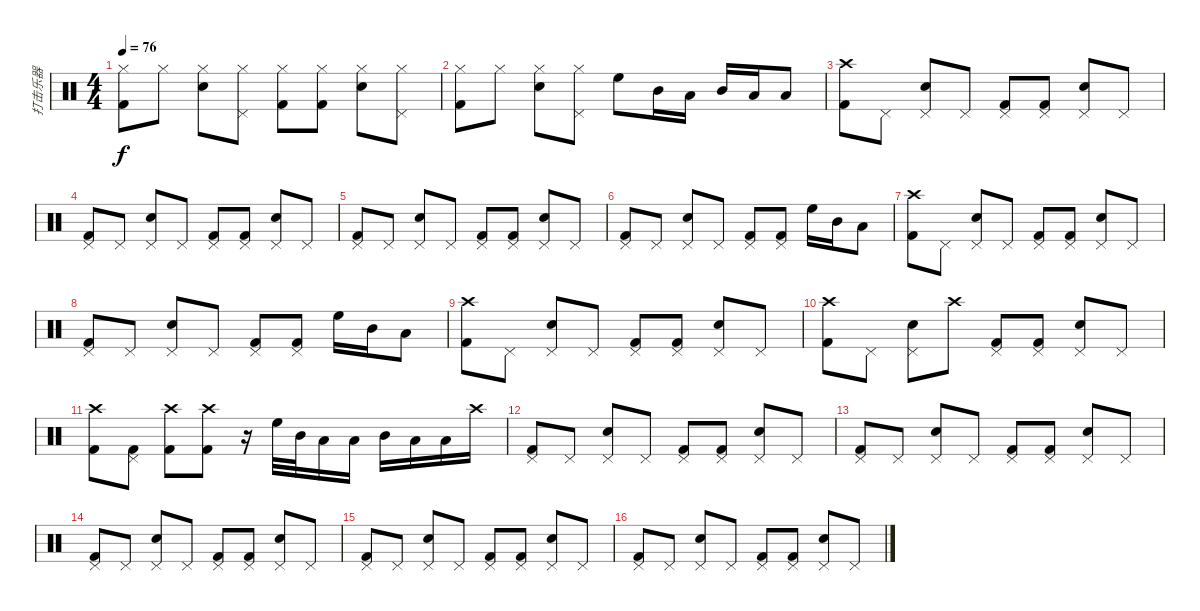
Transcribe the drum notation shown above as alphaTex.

\track ("打击乐器" "打击乐器") {instrument percussion}
\staff {score}
\articulation defaults
\ts (4 4)
\tempo 76
\clef neutral
\ks c
("Hi-Hat (closed)" "Kick (hit) 2").8{dy f} "Hi-Hat (closed)".8 ("Hi-Hat (closed)" "Snare (hit) 2").8 ("Hi-Hat (closed)" "Pedal Hi-Hat (hit)").8 ("Hi-Hat (closed)" "Kick (hit) 2").8 ("Hi-Hat (closed)" "Kick (hit) 2").8 ("Hi-Hat (closed)" "Snare (hit) 2").8 ("Hi-Hat (closed)" "Pedal Hi-Hat (hit)").8 |
("Hi-Hat (closed)" "Kick (hit) 2").8 "Hi-Hat (closed)".8 ("Hi-Hat (closed)" "Snare (hit) 2").8 ("Hi-Hat (closed)" "Pedal Hi-Hat (hit)").8 "High Floor Tom (hit)".8 "Mid Tom (hit)".16 "Low Tom (hit)".16 "Mid Tom (hit)".16 "Low Tom (hit)".16 "Low Floor Tom (hit)".8 |
("Crash high (hit)" "Kick (hit) 2").8 "Pedal Hi-Hat (hit)".8 ("Pedal Hi-Hat (hit)" "Snare (hit) 2").8 "Pedal Hi-Hat (hit)".8 ("Pedal Hi-Hat (hit)" "Kick (hit) 2").8 ("Pedal Hi-Hat (hit)" "Kick (hit) 2").8 ("Pedal Hi-Hat (hit)" "Snare (hit) 2").8 "Pedal Hi-Hat (hit)".8 |
("Pedal Hi-Hat (hit)" "Kick (hit) 2").8 "Pedal Hi-Hat (hit)".8 ("Pedal Hi-Hat (hit)" "Snare (hit) 2").8 "Pedal Hi-Hat (hit)".8 ("Pedal Hi-Hat (hit)" "Kick (hit) 2").8 ("Pedal Hi-Hat (hit)" "Kick (hit) 2").8 ("Pedal Hi-Hat (hit)" "Snare (hit) 2").8 "Pedal Hi-Hat (hit)".8 |
("Pedal Hi-Hat (hit)" "Kick (hit) 2").8 "Pedal Hi-Hat (hit)".8 ("Pedal Hi-Hat (hit)" "Snare (hit) 2").8 "Pedal Hi-Hat (hit)".8 ("Pedal Hi-Hat (hit)" "Kick (hit) 2").8 ("Pedal Hi-Hat (hit)" "Kick (hit) 2").8 ("Pedal Hi-Hat (hit)" "Snare (hit) 2").8 "Pedal Hi-Hat (hit)".8 |
("Pedal Hi-Hat (hit)" "Kick (hit) 2").8 "Pedal Hi-Hat (hit)".8 ("Pedal Hi-Hat (hit)" "Snare (hit) 2").8 "Pedal Hi-Hat (hit)".8 ("Pedal Hi-Hat (hit)" "Kick (hit) 2").8 ("Pedal Hi-Hat (hit)" "Kick (hit) 2").8 "High Floor Tom (hit)".16 "Mid Tom (hit)".16 "Low Tom (hit)".8 |
("Crash high (hit)" "Kick (hit) 2").8 "Pedal Hi-Hat (hit)".8 ("Pedal Hi-Hat (hit)" "Snare (hit) 2").8 "Pedal Hi-Hat (hit)".8 ("Pedal Hi-Hat (hit)" "Kick (hit) 2").8 ("Pedal Hi-Hat (hit)" "Kick (hit) 2").8 ("Pedal Hi-Hat (hit)" "Snare (hit) 2").8 "Pedal Hi-Hat (hit)".8 |
("Pedal Hi-Hat (hit)" "Kick (hit) 2").8 "Pedal Hi-Hat (hit)".8 ("Pedal Hi-Hat (hit)" "Snare (hit) 2").8 "Pedal Hi-Hat (hit)".8 ("Pedal Hi-Hat (hit)" "Kick (hit) 2").8 ("Pedal Hi-Hat (hit)" "Kick (hit) 2").8 "High Floor Tom (hit)".16 "Mid Tom (hit)".16 "Low Tom (hit)".8 |
("Crash high (hit)" "Kick (hit) 2").8 "Pedal Hi-Hat (hit)".8 ("Pedal Hi-Hat (hit)" "Snare (hit) 2").8 "Pedal Hi-Hat (hit)".8 ("Pedal Hi-Hat (hit)" "Kick (hit) 2").8 ("Pedal Hi-Hat (hit)" "Kick (hit) 2").8 ("Pedal Hi-Hat (hit)" "Snare (hit) 2").8 "Pedal Hi-Hat (hit)".8 |
("Crash high (hit)" "Kick (hit) 2").8 "Pedal Hi-Hat (hit)".8 ("Pedal Hi-Hat (hit)" "Snare (hit) 2").8 "Crash high (hit)".8 ("Pedal Hi-Hat (hit)" "Kick (hit) 2").8 ("Pedal Hi-Hat (hit)" "Kick (hit) 2").8 ("Pedal Hi-Hat (hit)" "Snare (hit) 2").8 "Pedal Hi-Hat (hit)".8 |
("Crash high (hit)" "Kick (hit) 2").8 ("Pedal Hi-Hat (hit)" "Kick (hit) 2").8 ("Crash high (hit)" "Kick (hit) 2").8 ("Crash high (hit)" "Kick (hit) 2").8 r.16 "High Floor Tom (hit)".32 "Mid Tom (hit)".32 "Low Tom (hit)".16 "Low Tom (hit)".16 "Mid Tom (hit)".16 "Low Tom (hit)".16 "Low Floor Tom (hit)".16 "Crash high (hit)".16 |
("Pedal Hi-Hat (hit)" "Kick (hit) 2").8 "Pedal Hi-Hat (hit)".8 ("Pedal Hi-Hat (hit)" "Snare (hit) 2").8 "Pedal Hi-Hat (hit)".8 ("Pedal Hi-Hat (hit)" "Kick (hit) 2").8 ("Pedal Hi-Hat (hit)" "Kick (hit) 2").8 ("Pedal Hi-Hat (hit)" "Snare (hit) 2").8 "Pedal Hi-Hat (hit)".8 |
("Pedal Hi-Hat (hit)" "Kick (hit) 2").8 "Pedal Hi-Hat (hit)".8 ("Pedal Hi-Hat (hit)" "Snare (hit) 2").8 "Pedal Hi-Hat (hit)".8 ("Pedal Hi-Hat (hit)" "Kick (hit) 2").8 ("Pedal Hi-Hat (hit)" "Kick (hit) 2").8 ("Pedal Hi-Hat (hit)" "Snare (hit) 2").8 "Pedal Hi-Hat (hit)".8 |
("Pedal Hi-Hat (hit)" "Kick (hit) 2").8 "Pedal Hi-Hat (hit)".8 ("Pedal Hi-Hat (hit)" "Snare (hit) 2").8 "Pedal Hi-Hat (hit)".8 ("Pedal Hi-Hat (hit)" "Kick (hit) 2").8 ("Pedal Hi-Hat (hit)" "Kick (hit) 2").8 ("Pedal Hi-Hat (hit)" "Snare (hit) 2").8 "Pedal Hi-Hat (hit)".8 |
("Pedal Hi-Hat (hit)" "Kick (hit) 2").8 "Pedal Hi-Hat (hit)".8 ("Pedal Hi-Hat (hit)" "Snare (hit) 2").8 "Pedal Hi-Hat (hit)".8 ("Pedal Hi-Hat (hit)" "Kick (hit) 2").8 ("Pedal Hi-Hat (hit)" "Kick (hit) 2").8 ("Pedal Hi-Hat (hit)" "Snare (hit) 2").8 "Pedal Hi-Hat (hit)".8 |
("Pedal Hi-Hat (hit)" "Kick (hit) 2").8 "Pedal Hi-Hat (hit)".8 ("Pedal Hi-Hat (hit)" "Snare (hit) 2").8 "Pedal Hi-Hat (hit)".8 ("Pedal Hi-Hat (hit)" "Kick (hit) 2").8 ("Pedal Hi-Hat (hit)" "Kick (hit) 2").8 ("Pedal Hi-Hat (hit)" "Snare (hit) 2").8 "Pedal Hi-Hat (hit)".8
